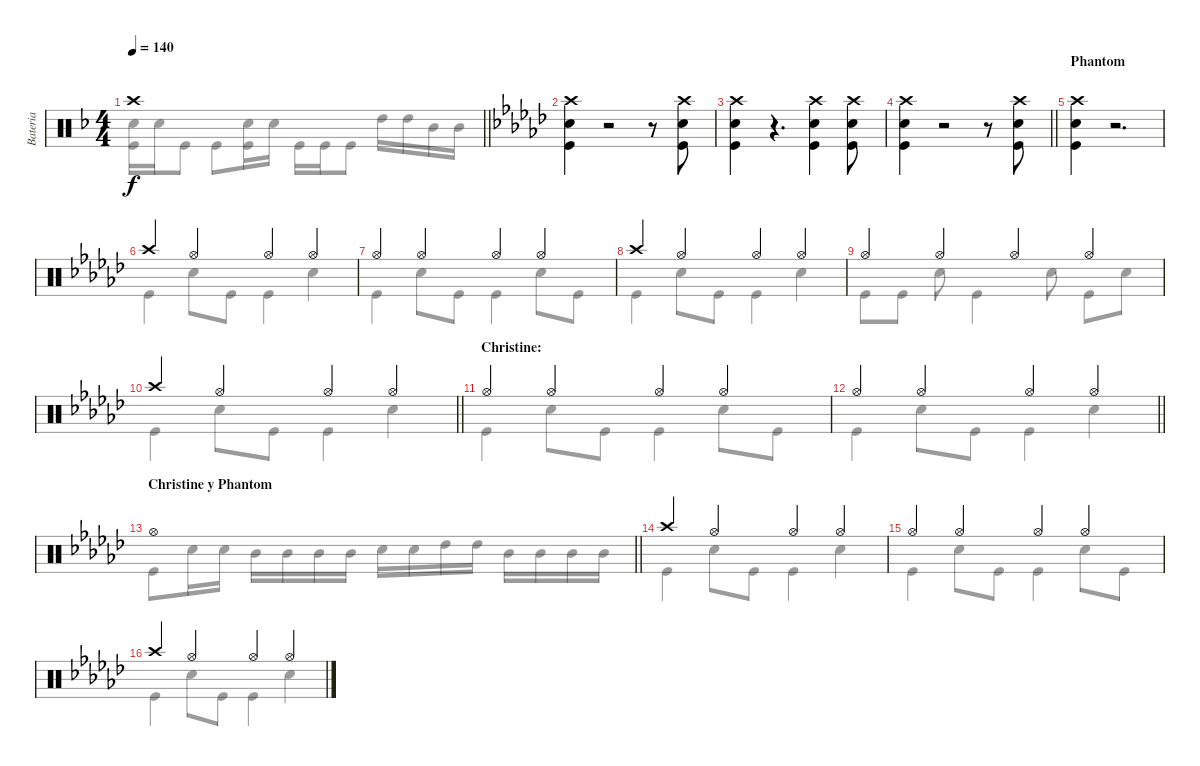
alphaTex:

\track ("Bateria" "Bateria") {instrument percussion}
\staff {score}
\articulation defaults
\voice
\ts (4 4)
\tempo 140
\clef neutral
\barLineRight lightlight
\ks dminor "Crash high (hit)".1{dy f}
|
\ks ebminor
("Crash high (hit)" "Snare (hit) 2" "Kick (hit)").4 r.2 r.8 ("Crash high (hit)" "Snare (hit) 2" "Kick (hit)").8 |
("Crash high (hit)" "Snare (hit) 2" "Kick (hit)").4 r.4{d} ("Crash high (hit)" "Snare (hit) 2" "Kick (hit)").4 ("Crash high (hit)" "Snare (hit) 2" "Kick (hit)").8 |
\barLineRight lightlight
("Crash high (hit)" "Snare (hit) 2" "Kick (hit)").4 r.2 r.8 ("Crash high (hit)" "Snare (hit) 2" "Kick (hit)").8 |
\section ("" "Phantom")
("Crash high (hit)" "Snare (hit) 2" "Kick (hit)").4 r.2{d} |
"Crash high (hit)".4 "Hi-Hat (open)".4 "Hi-Hat (open)".4 "Hi-Hat (open)".4 |
"Hi-Hat (open)".4 "Hi-Hat (open)".4 "Hi-Hat (open)".4 "Hi-Hat (open)".4 |
"Crash high (hit)".4 "Hi-Hat (open)".4 "Hi-Hat (open)".4 "Hi-Hat (open)".4 |
"Hi-Hat (open)".4 "Hi-Hat (open)".4 "Hi-Hat (open)".4 "Hi-Hat (open)".4 |
\barLineRight lightlight "Crash high (hit)".4 "Hi-Hat (open)".4 "Hi-Hat (open)".4 "Hi-Hat (open)".4
|
\section ("" "Christine:")
"Hi-Hat (open)".4 "Hi-Hat (open)".4 "Hi-Hat (open)".4 "Hi-Hat (open)".4 |
\barLineRight lightlight "Hi-Hat (open)".4 "Hi-Hat (open)".4 "Hi-Hat (open)".4 "Hi-Hat (open)".4
|
\section ("" "Christine y Phantom")
\barLineRight lightlight "Hi-Hat (open)".1
|
"Crash high (hit)".4 "Hi-Hat (open)".4 "Hi-Hat (open)".4 "Hi-Hat (open)".4 |
"Hi-Hat (open)".4 "Hi-Hat (open)".4 "Hi-Hat (open)".4 "Hi-Hat (open)".4 |
"Crash high (hit)".4 "Hi-Hat (open)".4 "Hi-Hat (open)".4 "Hi-Hat (open)".4
\voice
\clef neutral
\ottava regular
\simile none
\barLineRight lightlight
\ks dminor
("Snare (hit) 2" "Kick (hit)").16{dy f} "Snare (hit) 2".16 "Kick (hit)".8 "Kick (hit)".8 ("Snare (hit) 2" "Kick (hit)").16 "Snare (hit) 2".16 "Kick (hit)".16 "Kick (hit)".16 "Kick (hit)".8 "High Tom (hit)".16 "High Tom (hit)".16 "Mid Tom (hit)".16 "Mid Tom (hit)".16 |
\ks ebminor
|
|
\barLineRight lightlight
|
|
"Kick (hit)".4 "Snare (hit) 2".8 "Kick (hit)".8 "Kick (hit)".4 "Snare (hit) 2".4 |
"Kick (hit)".4 "Snare (hit) 2".8 "Kick (hit)".8 "Kick (hit)".4 "Snare (hit) 2".8 "Kick (hit)".8 |
"Kick (hit)".4 "Snare (hit) 2".8 "Kick (hit)".8 "Kick (hit)".4 "Snare (hit) 2".4 |
"Kick (hit)".8 "Kick (hit)".8 "Snare (hit) 2".8 "Kick (hit)".4 "Snare (hit) 2".8 "Kick (hit)".8 "Snare (hit) 2".8 |
\barLineRight lightlight "Kick (hit)".4 "Snare (hit) 2".8 "Kick (hit)".8 "Kick (hit)".4 "Snare (hit) 2".4
|
"Kick (hit)".4 "Snare (hit) 2".8 "Kick (hit)".8 "Kick (hit)".4 "Snare (hit) 2".8 "Kick (hit)".8 |
\barLineRight lightlight "Kick (hit)".4 "Snare (hit) 2".8 "Kick (hit)".8 "Kick (hit)".4 "Snare (hit) 2".4
|
\barLineRight lightlight "Kick (hit)".8 "Snare (hit) 2".16 "Snare (hit) 2".16 "Mid Tom (hit)".16 "Mid Tom (hit)".16 "Mid Tom (hit)".16 "Mid Tom (hit)".16 "Snare (hit) 2".16 "Snare (hit) 2".16 "High Tom (hit)".16 "High Tom (hit)".16 "Mid Tom (hit)".16 "Mid Tom (hit)".16 "Mid Tom (hit)".16 "Mid Tom (hit)".16
|
"Kick (hit)".4 "Snare (hit) 2".8 "Kick (hit)".8 "Kick (hit)".4 "Snare (hit) 2".4 |
"Kick (hit)".4 "Snare (hit) 2".8 "Kick (hit)".8 "Kick (hit)".4 "Snare (hit) 2".8 "Kick (hit)".8 |
"Kick (hit)".4 "Snare (hit) 2".8 "Kick (hit)".8 "Kick (hit)".4 "Snare (hit) 2".4
